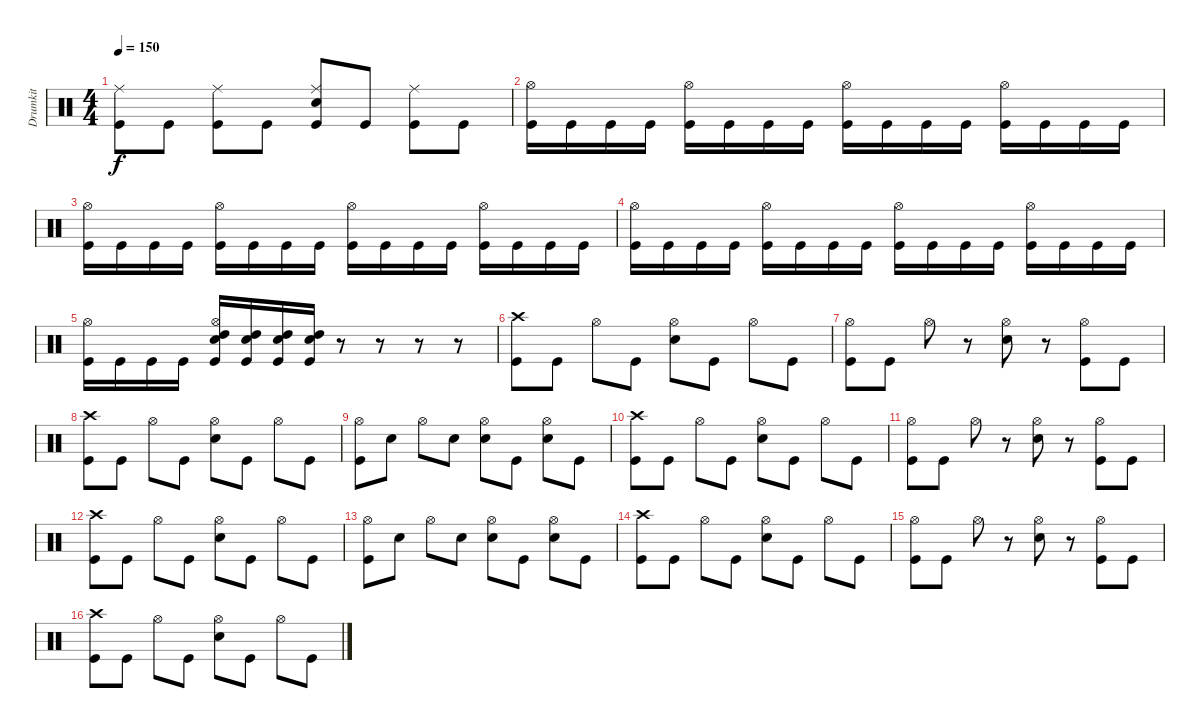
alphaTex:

\track ("Drumkit" "Drumkit") {instrument percussion}
\staff {score}
\articulation defaults
\ts (4 4)
\tempo 150
\clef neutral
\ks c
("Kick (hit)" "Ride (middle)").8{dy f} "Kick (hit)".8 ("Kick (hit)" "Ride (middle)").8 "Kick (hit)".8 ("Kick (hit)" "Snare (hit) 2" "Ride (middle)").8 "Kick (hit)".8 ("Kick (hit)" "Ride (middle)").8 "Kick (hit)".8 |
("Hi-Hat (open)" "Kick (hit)").16 "Kick (hit)".16 "Kick (hit)".16 "Kick (hit)".16 ("Hi-Hat (open)" "Kick (hit)").16 "Kick (hit)".16 "Kick (hit)".16 "Kick (hit)".16 ("Hi-Hat (open)" "Kick (hit)").16 "Kick (hit)".16 "Kick (hit)".16 "Kick (hit)".16 ("Hi-Hat (open)" "Kick (hit)").16 "Kick (hit)".16 "Kick (hit)".16 "Kick (hit)".16 |
("Hi-Hat (open)" "Kick (hit)").16 "Kick (hit)".16 "Kick (hit)".16 "Kick (hit)".16 ("Hi-Hat (open)" "Kick (hit)").16 "Kick (hit)".16 "Kick (hit)".16 "Kick (hit)".16 ("Hi-Hat (open)" "Kick (hit)").16 "Kick (hit)".16 "Kick (hit)".16 "Kick (hit)".16 ("Hi-Hat (open)" "Kick (hit)").16 "Kick (hit)".16 "Kick (hit)".16 "Kick (hit)".16 |
("Hi-Hat (open)" "Kick (hit)").16 "Kick (hit)".16 "Kick (hit)".16 "Kick (hit)".16 ("Hi-Hat (open)" "Kick (hit)").16 "Kick (hit)".16 "Kick (hit)".16 "Kick (hit)".16 ("Hi-Hat (open)" "Kick (hit)").16 "Kick (hit)".16 "Kick (hit)".16 "Kick (hit)".16 ("Hi-Hat (open)" "Kick (hit)").16 "Kick (hit)".16 "Kick (hit)".16 "Kick (hit)".16 |
("Hi-Hat (open)" "Kick (hit)").16 "Kick (hit)".16 "Kick (hit)".16 "Kick (hit)".16 ("Hi-Hat (open)" "High Tom (hit)" "Snare (hit) 2" "Kick (hit)").16 ("High Tom (hit)" "Snare (hit) 2" "Kick (hit)").16 ("High Tom (hit)" "Snare (hit) 2" "Kick (hit)").16 ("High Tom (hit)" "Snare (hit) 2" "Kick (hit)").16 r.8 r.8 r.8 r.8 |
("Kick (hit)" "Crash high (hit)").8 "Kick (hit)".8 "Hi-Hat (open)".8 "Kick (hit)".8 ("Snare (hit) 2" "Hi-Hat (open)").8 "Kick (hit)".8 "Hi-Hat (open)".8 "Kick (hit)".8 |
("Kick (hit)" "Hi-Hat (open)").8 "Kick (hit)".8 "Hi-Hat (open)".8 r.8 ("Snare (hit) 2" "Hi-Hat (open)").8 r.8 ("Kick (hit)" "Hi-Hat (open)").8 "Kick (hit)".8 |
("Kick (hit)" "Crash high (hit)").8 "Kick (hit)".8 "Hi-Hat (open)".8 "Kick (hit)".8 ("Snare (hit) 2" "Hi-Hat (open)").8 "Kick (hit)".8 "Hi-Hat (open)".8 "Kick (hit)".8 |
("Kick (hit)" "Hi-Hat (open)").8 "Snare (hit) 2".8 "Hi-Hat (open)".8 "Snare (hit) 2".8 ("Snare (hit) 2" "Hi-Hat (open)").8 "Kick (hit)".8 ("Snare (hit) 2" "Hi-Hat (open)").8 "Kick (hit)".8 |
("Kick (hit)" "Crash high (hit)").8 "Kick (hit)".8 "Hi-Hat (open)".8 "Kick (hit)".8 ("Snare (hit) 2" "Hi-Hat (open)").8 "Kick (hit)".8 "Hi-Hat (open)".8 "Kick (hit)".8 |
("Kick (hit)" "Hi-Hat (open)").8 "Kick (hit)".8 "Hi-Hat (open)".8 r.8 ("Snare (hit) 2" "Hi-Hat (open)").8 r.8 ("Kick (hit)" "Hi-Hat (open)").8 "Kick (hit)".8 |
("Kick (hit)" "Crash high (hit)").8 "Kick (hit)".8 "Hi-Hat (open)".8 "Kick (hit)".8 ("Snare (hit) 2" "Hi-Hat (open)").8 "Kick (hit)".8 "Hi-Hat (open)".8 "Kick (hit)".8 |
("Kick (hit)" "Hi-Hat (open)").8 "Snare (hit) 2".8 "Hi-Hat (open)".8 "Snare (hit) 2".8 ("Snare (hit) 2" "Hi-Hat (open)").8 "Kick (hit)".8 ("Snare (hit) 2" "Hi-Hat (open)").8 "Kick (hit)".8 |
("Kick (hit)" "Crash high (hit)").8 "Kick (hit)".8 "Hi-Hat (open)".8 "Kick (hit)".8 ("Snare (hit) 2" "Hi-Hat (open)").8 "Kick (hit)".8 "Hi-Hat (open)".8 "Kick (hit)".8 |
("Kick (hit)" "Hi-Hat (open)").8 "Kick (hit)".8 "Hi-Hat (open)".8 r.8 ("Snare (hit) 2" "Hi-Hat (open)").8 r.8 ("Kick (hit)" "Hi-Hat (open)").8 "Kick (hit)".8 |
("Kick (hit)" "Crash high (hit)").8 "Kick (hit)".8 "Hi-Hat (open)".8 "Kick (hit)".8 ("Snare (hit) 2" "Hi-Hat (open)").8 "Kick (hit)".8 "Hi-Hat (open)".8 "Kick (hit)".8
